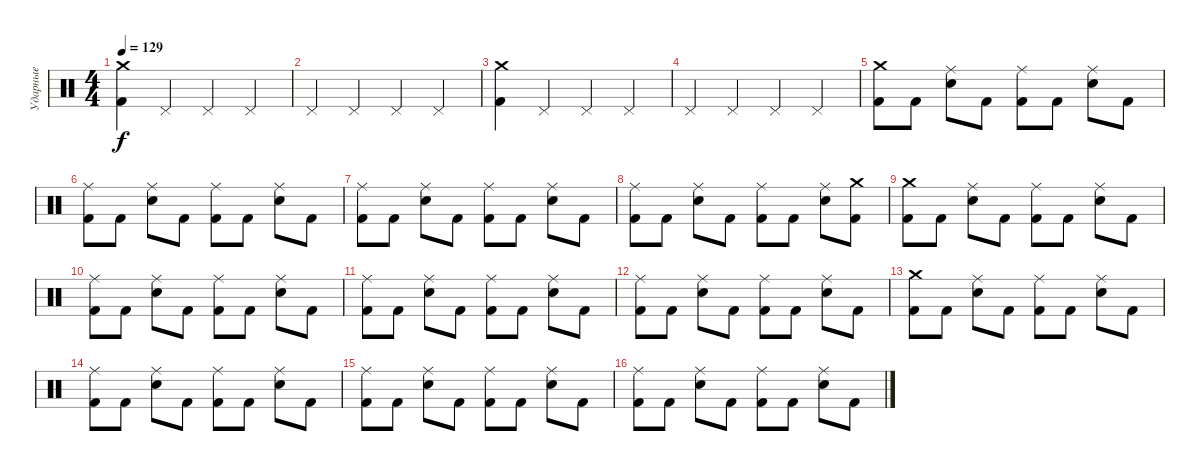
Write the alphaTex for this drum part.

\track ("Ударные" "Ударные") {instrument percussion}
\staff {score}
\articulation defaults
\ts (4 4)
\tempo 129
\clef neutral
\ks c
("Kick (hit) 2" "Crash medium (hit)").4{dy f} "Pedal Hi-Hat (hit)".4 "Pedal Hi-Hat (hit)".4 "Pedal Hi-Hat (hit)".4 |
"Pedal Hi-Hat (hit)".4 "Pedal Hi-Hat (hit)".4 "Pedal Hi-Hat (hit)".4 "Pedal Hi-Hat (hit)".4 |
("Kick (hit) 2" "Crash medium (hit)").4 "Pedal Hi-Hat (hit)".4 "Pedal Hi-Hat (hit)".4 "Pedal Hi-Hat (hit)".4 |
"Pedal Hi-Hat (hit)".4 "Pedal Hi-Hat (hit)".4 "Pedal Hi-Hat (hit)".4 "Pedal Hi-Hat (hit)".4 |
("Crash medium (hit)" "Kick (hit) 2").8 "Kick (hit) 2".8 ("Ride (middle)" "Electric Snare (hit)").8 "Kick (hit) 2".8 ("Ride (middle)" "Kick (hit) 2").8 "Kick (hit) 2".8 ("Ride (middle)" "Electric Snare (hit)").8 "Kick (hit) 2".8 |
("Ride (middle)" "Kick (hit) 2").8 "Kick (hit) 2".8 ("Ride (middle)" "Electric Snare (hit)").8 "Kick (hit) 2".8 ("Ride (middle)" "Kick (hit) 2").8 "Kick (hit) 2".8 ("Ride (middle)" "Electric Snare (hit)").8 "Kick (hit) 2".8 |
("Ride (middle)" "Kick (hit) 2").8 "Kick (hit) 2".8 ("Ride (middle)" "Electric Snare (hit)").8 "Kick (hit) 2".8 ("Ride (middle)" "Kick (hit) 2").8 "Kick (hit) 2".8 ("Ride (middle)" "Electric Snare (hit)").8 "Kick (hit) 2".8 |
("Ride (middle)" "Kick (hit) 2").8 "Kick (hit) 2".8 ("Ride (middle)" "Electric Snare (hit)").8 "Kick (hit) 2".8 ("Ride (middle)" "Kick (hit) 2").8 "Kick (hit) 2".8 ("Ride (middle)" "Electric Snare (hit)").8 ("Crash medium (hit)" "Kick (hit) 2").8 |
("Crash medium (hit)" "Kick (hit) 2").8 "Kick (hit) 2".8 ("Ride (middle)" "Electric Snare (hit)").8 "Kick (hit) 2".8 ("Ride (middle)" "Kick (hit) 2").8 "Kick (hit) 2".8 ("Ride (middle)" "Electric Snare (hit)").8 "Kick (hit) 2".8 |
("Ride (middle)" "Kick (hit) 2").8 "Kick (hit) 2".8 ("Ride (middle)" "Electric Snare (hit)").8 "Kick (hit) 2".8 ("Ride (middle)" "Kick (hit) 2").8 "Kick (hit) 2".8 ("Ride (middle)" "Electric Snare (hit)").8 "Kick (hit) 2".8 |
("Ride (middle)" "Kick (hit) 2").8 "Kick (hit) 2".8 ("Ride (middle)" "Electric Snare (hit)").8 "Kick (hit) 2".8 ("Ride (middle)" "Kick (hit) 2").8 "Kick (hit) 2".8 ("Ride (middle)" "Electric Snare (hit)").8 "Kick (hit) 2".8 |
("Ride (middle)" "Kick (hit) 2").8 "Kick (hit) 2".8 ("Ride (middle)" "Electric Snare (hit)").8 "Kick (hit) 2".8 ("Ride (middle)" "Kick (hit) 2").8 "Kick (hit) 2".8 ("Ride (middle)" "Electric Snare (hit)").8 "Kick (hit) 2".8 |
("Crash medium (hit)" "Kick (hit) 2").8 "Kick (hit) 2".8 ("Ride (middle)" "Electric Snare (hit)").8 "Kick (hit) 2".8 ("Ride (middle)" "Kick (hit) 2").8 "Kick (hit) 2".8 ("Ride (middle)" "Electric Snare (hit)").8 "Kick (hit) 2".8 |
("Ride (middle)" "Kick (hit) 2").8 "Kick (hit) 2".8 ("Ride (middle)" "Electric Snare (hit)").8 "Kick (hit) 2".8 ("Ride (middle)" "Kick (hit) 2").8 "Kick (hit) 2".8 ("Ride (middle)" "Electric Snare (hit)").8 "Kick (hit) 2".8 |
("Ride (middle)" "Kick (hit) 2").8 "Kick (hit) 2".8 ("Ride (middle)" "Electric Snare (hit)").8 "Kick (hit) 2".8 ("Ride (middle)" "Kick (hit) 2").8 "Kick (hit) 2".8 ("Ride (middle)" "Electric Snare (hit)").8 "Kick (hit) 2".8 |
("Ride (middle)" "Kick (hit) 2").8 "Kick (hit) 2".8 ("Ride (middle)" "Electric Snare (hit)").8 "Kick (hit) 2".8 ("Ride (middle)" "Kick (hit) 2").8 "Kick (hit) 2".8 ("Ride (middle)" "Electric Snare (hit)").8 "Kick (hit) 2".8
